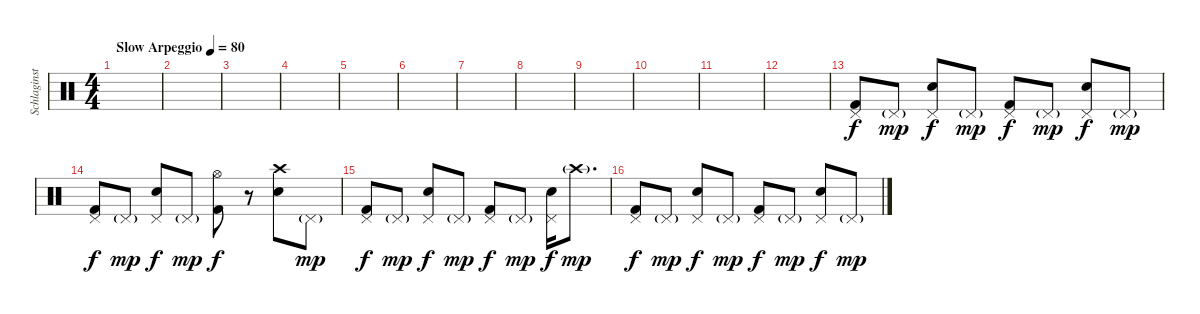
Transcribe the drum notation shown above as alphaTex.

\track ("Schlaginstrumente - Auswahl" "Schlaginst") {instrument percussion}
\staff {score}
\articulation defaults
\ts (4 4)
\tempo (80 "Slow Arpeggio")
\clef neutral
\ks c
|
|
|
|
|
|
|
|
|
|
|
|
("Pedal Hi-Hat (hit)" "Kick (hit) 2").8 "Pedal Hi-Hat (hit)"{g}.8{dy mp} ("Pedal Hi-Hat (hit)" "Electric Snare (hit)").8{dy f} "Pedal Hi-Hat (hit)"{g}.8{dy mp} ("Pedal Hi-Hat (hit)" "Kick (hit) 2").8{dy f} "Pedal Hi-Hat (hit)"{g}.8{dy mp} ("Pedal Hi-Hat (hit)" "Electric Snare (hit)").8{dy f} "Pedal Hi-Hat (hit)"{g}.8{dy mp} |
("Pedal Hi-Hat (hit)" "Kick (hit) 2").8{dy f} "Pedal Hi-Hat (hit)"{g}.8{dy mp} ("Pedal Hi-Hat (hit)" "Electric Snare (hit)").8{dy f} "Pedal Hi-Hat (hit)"{g}.8{dy mp} ("Hi-Hat (open)" "Kick (hit) 2").8{dy f} r.8 ("Crash high (hit)" "Electric Snare (hit)").8 "Pedal Hi-Hat (hit)"{g}.8{dy mp} |
("Pedal Hi-Hat (hit)" "Kick (hit) 2").8{dy f} "Pedal Hi-Hat (hit)"{g}.8{dy mp} ("Pedal Hi-Hat (hit)" "Electric Snare (hit)").8{dy f} "Pedal Hi-Hat (hit)"{g}.8{dy mp} ("Pedal Hi-Hat (hit)" "Kick (hit) 2").8{dy f} "Pedal Hi-Hat (hit)"{g}.8{dy mp} ("Pedal Hi-Hat (hit)" "Electric Snare (hit)").16{dy f} "Crash high (hit)"{g}.8{d dy mp} |
("Pedal Hi-Hat (hit)" "Kick (hit) 2").8{dy f} "Pedal Hi-Hat (hit)"{g}.8{dy mp} ("Pedal Hi-Hat (hit)" "Electric Snare (hit)").8{dy f} "Pedal Hi-Hat (hit)"{g}.8{dy mp} ("Pedal Hi-Hat (hit)" "Kick (hit) 2").8{dy f} "Pedal Hi-Hat (hit)"{g}.8{dy mp} ("Pedal Hi-Hat (hit)" "Electric Snare (hit)").8{dy f} "Pedal Hi-Hat (hit)"{g}.8{dy mp}
